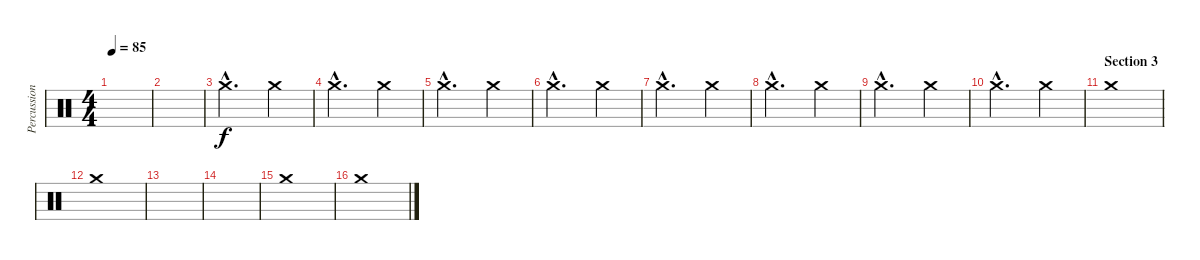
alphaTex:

\track ("Percussion" "Percussion") {instrument percussion}
\staff {score}
\articulation defaults
\ts (4 4)
\tempo 85
\clef neutral
\ks c
|
|
"Crash medium (hit)"{hac}.2{d} "Crash medium (hit)".4 |
"Crash medium (hit)"{hac}.2{d} "Crash medium (hit)".4 |
"Crash medium (hit)"{hac}.2{d} "Crash medium (hit)".4 |
"Crash medium (hit)"{hac}.2{d} "Crash medium (hit)".4 |
"Crash medium (hit)"{hac}.2{d} "Crash medium (hit)".4 |
"Crash medium (hit)"{hac}.2{d} "Crash medium (hit)".4 |
"Crash medium (hit)"{hac}.2{d} "Crash medium (hit)".4 |
"Crash medium (hit)"{hac}.2{d} "Crash medium (hit)".4 |
\section ("" "Section 3")
"Crash medium (hit)".1 |
"Crash medium (hit)".1 |
|
|
"Crash medium (hit)".1 |
"Crash medium (hit)".1
